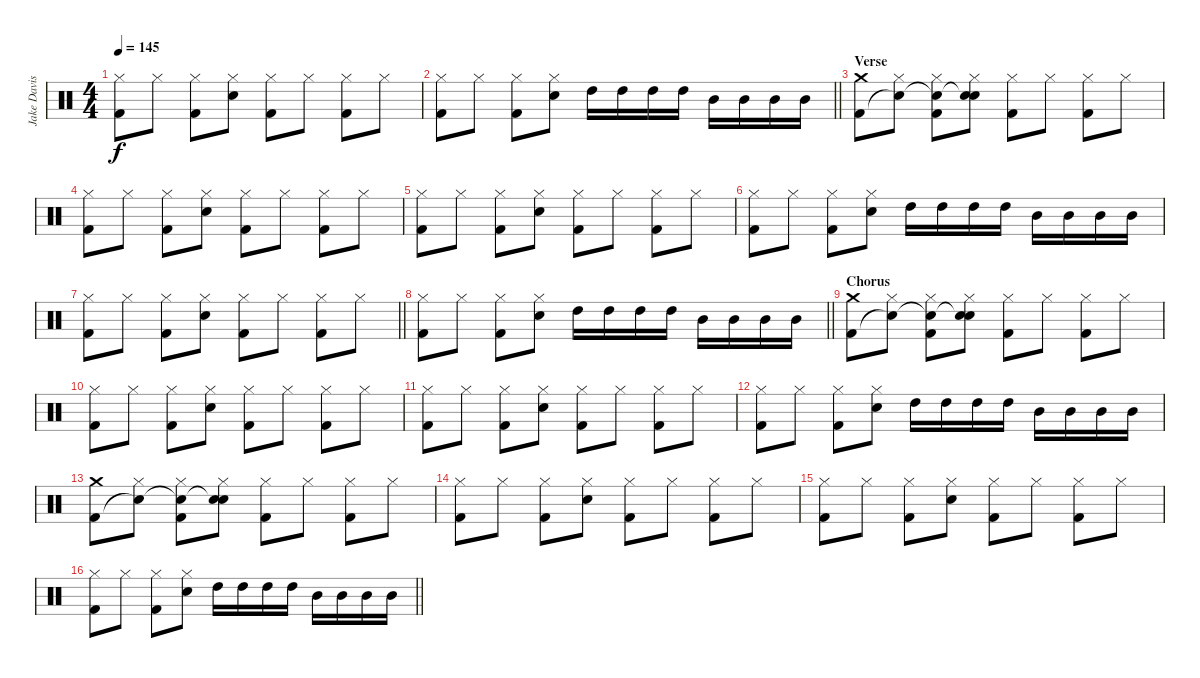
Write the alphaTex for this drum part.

\track ("Jake Davison (Drums)" "Jake Davis") {instrument percussion}
\staff {score}
\articulation defaults
\ts (4 4)
\tempo 145
\clef neutral
\ks c
("Hi-Hat (closed)" "Kick (hit) 2").8{dy f} "Hi-Hat (closed)".8 ("Hi-Hat (closed)" "Kick (hit) 2").8 ("Hi-Hat (closed)" "Electric Snare (hit)").8 ("Hi-Hat (closed)" "Kick (hit) 2").8 "Hi-Hat (closed)".8 ("Hi-Hat (closed)" "Kick (hit) 2").8 "Hi-Hat (closed)".8 |
\barLineRight lightlight
("Hi-Hat (closed)" "Kick (hit) 2").8 "Hi-Hat (closed)".8 ("Hi-Hat (closed)" "Kick (hit) 2").8 ("Hi-Hat (closed)" "Electric Snare (hit)").8 "High Tom (hit)".16 "High Tom (hit)".16 "High Tom (hit)".16 "High Tom (hit)".16 "Mid Tom (hit)".16 "Mid Tom (hit)".16 "Mid Tom (hit)".16 "Mid Tom (hit)".16 |
\section ("" "Verse")
("Crash medium (hit)" "Kick (hit) 2").8 ("Hi-Hat (closed)" "Snare (hit)"{t}).8 ("Hi-Hat (closed)" "Snare (hit)"{t} "Kick (hit) 2").8 ("Hi-Hat (closed)" "Snare (hit)"{t} "Electric Snare (hit)").8 ("Hi-Hat (closed)" "Kick (hit) 2").8 "Hi-Hat (closed)".8 ("Hi-Hat (closed)" "Kick (hit) 2").8 "Hi-Hat (closed)".8 |
("Hi-Hat (closed)" "Kick (hit) 2").8 "Hi-Hat (closed)".8 ("Hi-Hat (closed)" "Kick (hit) 2").8 ("Hi-Hat (closed)" "Electric Snare (hit)").8 ("Hi-Hat (closed)" "Kick (hit) 2").8 "Hi-Hat (closed)".8 ("Hi-Hat (closed)" "Kick (hit) 2").8 "Hi-Hat (closed)".8 |
("Hi-Hat (closed)" "Kick (hit) 2").8 "Hi-Hat (closed)".8 ("Hi-Hat (closed)" "Kick (hit) 2").8 ("Hi-Hat (closed)" "Electric Snare (hit)").8 ("Hi-Hat (closed)" "Kick (hit) 2").8 "Hi-Hat (closed)".8 ("Hi-Hat (closed)" "Kick (hit) 2").8 "Hi-Hat (closed)".8 |
("Hi-Hat (closed)" "Kick (hit) 2").8 "Hi-Hat (closed)".8 ("Hi-Hat (closed)" "Kick (hit) 2").8 ("Hi-Hat (closed)" "Electric Snare (hit)").8 "High Tom (hit)".16 "High Tom (hit)".16 "High Tom (hit)".16 "High Tom (hit)".16 "Mid Tom (hit)".16 "Mid Tom (hit)".16 "Mid Tom (hit)".16 "Mid Tom (hit)".16 |
\barLineRight lightlight
("Hi-Hat (closed)" "Kick (hit) 2").8 "Hi-Hat (closed)".8 ("Hi-Hat (closed)" "Kick (hit) 2").8 ("Hi-Hat (closed)" "Electric Snare (hit)").8 ("Hi-Hat (closed)" "Kick (hit) 2").8 "Hi-Hat (closed)".8 ("Hi-Hat (closed)" "Kick (hit) 2").8 "Hi-Hat (closed)".8 |
\barLineRight lightlight
("Hi-Hat (closed)" "Kick (hit) 2").8 "Hi-Hat (closed)".8 ("Hi-Hat (closed)" "Kick (hit) 2").8 ("Hi-Hat (closed)" "Electric Snare (hit)").8 "High Tom (hit)".16 "High Tom (hit)".16 "High Tom (hit)".16 "High Tom (hit)".16 "Mid Tom (hit)".16 "Mid Tom (hit)".16 "Mid Tom (hit)".16 "Mid Tom (hit)".16 |
\section ("" "Chorus")
("Crash medium (hit)" "Kick (hit) 2").8 ("Hi-Hat (closed)" "Snare (hit)"{t}).8 ("Hi-Hat (closed)" "Snare (hit)"{t} "Kick (hit) 2").8 ("Hi-Hat (closed)" "Snare (hit)"{t} "Electric Snare (hit)").8 ("Hi-Hat (closed)" "Kick (hit) 2").8 "Hi-Hat (closed)".8 ("Hi-Hat (closed)" "Kick (hit) 2").8 "Hi-Hat (closed)".8 |
("Hi-Hat (closed)" "Kick (hit) 2").8 "Hi-Hat (closed)".8 ("Hi-Hat (closed)" "Kick (hit) 2").8 ("Hi-Hat (closed)" "Electric Snare (hit)").8 ("Hi-Hat (closed)" "Kick (hit) 2").8 "Hi-Hat (closed)".8 ("Hi-Hat (closed)" "Kick (hit) 2").8 "Hi-Hat (closed)".8 |
("Hi-Hat (closed)" "Kick (hit) 2").8 "Hi-Hat (closed)".8 ("Hi-Hat (closed)" "Kick (hit) 2").8 ("Hi-Hat (closed)" "Electric Snare (hit)").8 ("Hi-Hat (closed)" "Kick (hit) 2").8 "Hi-Hat (closed)".8 ("Hi-Hat (closed)" "Kick (hit) 2").8 "Hi-Hat (closed)".8 |
("Hi-Hat (closed)" "Kick (hit) 2").8 "Hi-Hat (closed)".8 ("Hi-Hat (closed)" "Kick (hit) 2").8 ("Hi-Hat (closed)" "Electric Snare (hit)").8 "High Tom (hit)".16 "High Tom (hit)".16 "High Tom (hit)".16 "High Tom (hit)".16 "Mid Tom (hit)".16 "Mid Tom (hit)".16 "Mid Tom (hit)".16 "Mid Tom (hit)".16 |
("Crash medium (hit)" "Kick (hit) 2").8 ("Hi-Hat (closed)" "Snare (hit)"{t}).8 ("Hi-Hat (closed)" "Snare (hit)"{t} "Kick (hit) 2").8 ("Hi-Hat (closed)" "Snare (hit)"{t} "Electric Snare (hit)").8 ("Hi-Hat (closed)" "Kick (hit) 2").8 "Hi-Hat (closed)".8 ("Hi-Hat (closed)" "Kick (hit) 2").8 "Hi-Hat (closed)".8 |
("Hi-Hat (closed)" "Kick (hit) 2").8 "Hi-Hat (closed)".8 ("Hi-Hat (closed)" "Kick (hit) 2").8 ("Hi-Hat (closed)" "Electric Snare (hit)").8 ("Hi-Hat (closed)" "Kick (hit) 2").8 "Hi-Hat (closed)".8 ("Hi-Hat (closed)" "Kick (hit) 2").8 "Hi-Hat (closed)".8 |
("Hi-Hat (closed)" "Kick (hit) 2").8 "Hi-Hat (closed)".8 ("Hi-Hat (closed)" "Kick (hit) 2").8 ("Hi-Hat (closed)" "Electric Snare (hit)").8 ("Hi-Hat (closed)" "Kick (hit) 2").8 "Hi-Hat (closed)".8 ("Hi-Hat (closed)" "Kick (hit) 2").8 "Hi-Hat (closed)".8 |
\barLineRight lightlight
("Hi-Hat (closed)" "Kick (hit) 2").8 "Hi-Hat (closed)".8 ("Hi-Hat (closed)" "Kick (hit) 2").8 ("Hi-Hat (closed)" "Electric Snare (hit)").8 "High Tom (hit)".16 "High Tom (hit)".16 "High Tom (hit)".16 "High Tom (hit)".16 "Mid Tom (hit)".16 "Mid Tom (hit)".16 "Mid Tom (hit)".16 "Mid Tom (hit)".16
